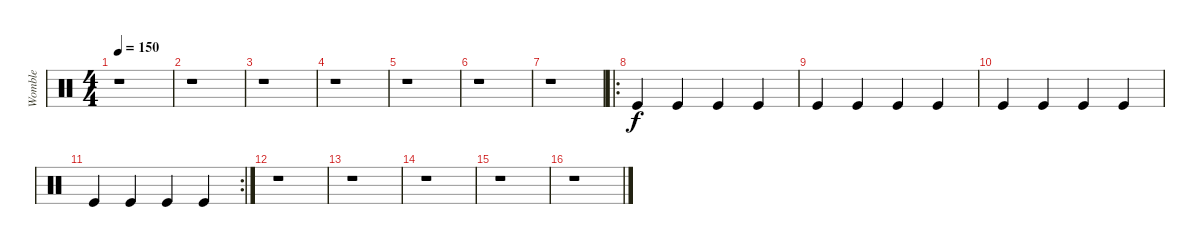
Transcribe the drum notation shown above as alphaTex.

\track ("Womble" "Womble") {instrument percussion}
\staff {score}
\articulation defaults
\ts (4 4)
\tempo 150
\clef neutral
\ks c
r.1{dy f} |
r.1 |
r.1 |
r.1 |
r.1 |
r.1 |
r.1 |
\ro "Kick (hit)".4 "Kick (hit)".4 "Kick (hit)".4 "Kick (hit)".4
|
"Kick (hit)".4 "Kick (hit)".4 "Kick (hit)".4 "Kick (hit)".4 |
"Kick (hit)".4 "Kick (hit)".4 "Kick (hit)".4 "Kick (hit)".4 |
\rc 2 "Kick (hit)".4 "Kick (hit)".4 "Kick (hit)".4 "Kick (hit)".4
|
r.1 |
r.1 |
r.1 |
r.1 |
r.1
